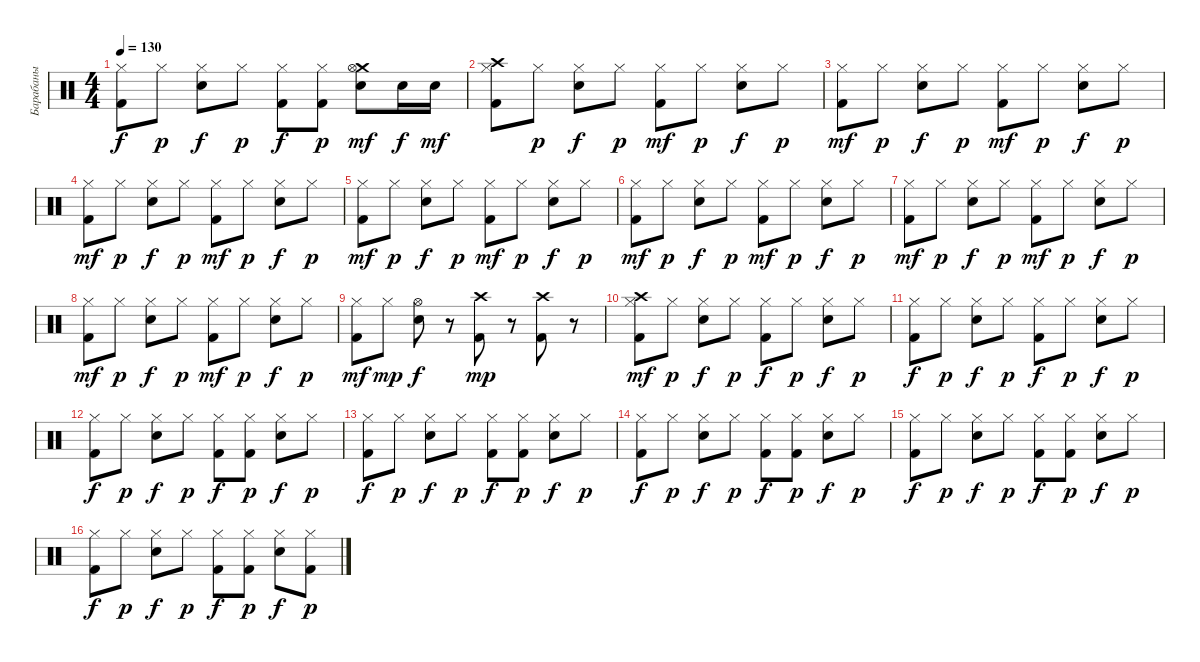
\track ("Барабаны" "Барабаны") {instrument percussion}
\staff {score}
\articulation defaults
\ts (4 4)
\tempo 130
\clef neutral
\ks c
("Hi-Hat (closed)" "Kick (hit) 2").8{dy f} "Hi-Hat (closed)".8{dy p} ("Snare (hit) 2" "Hi-Hat (closed)").8{dy f} "Hi-Hat (closed)".8{dy p} ("Hi-Hat (closed)" "Kick (hit) 2").8{dy f} ("Kick (hit) 2" "Hi-Hat (closed)").8{dy p} ("Crash medium (hit)" "Snare (hit) 2" "Hi-Hat (open)").8{dy mf} "Snare (hit) 2".16{dy f} "Snare (hit) 2".16{dy mf} |
("Crash high (hit)" "Hi-Hat (closed)" "Kick (hit) 2").8 "Hi-Hat (closed)".8{dy p} ("Snare (hit) 2" "Hi-Hat (closed)").8{dy f} "Hi-Hat (closed)".8{dy p} ("Hi-Hat (closed)" "Kick (hit) 2").8{dy mf} "Hi-Hat (closed)".8{dy p} ("Snare (hit) 2" "Hi-Hat (closed)").8{dy f} "Hi-Hat (closed)".8{dy p} |
("Hi-Hat (closed)" "Kick (hit) 2").8{dy mf} "Hi-Hat (closed)".8{dy p} ("Snare (hit) 2" "Hi-Hat (closed)").8{dy f} "Hi-Hat (closed)".8{dy p} ("Hi-Hat (closed)" "Kick (hit) 2").8{dy mf} "Hi-Hat (closed)".8{dy p} ("Snare (hit) 2" "Hi-Hat (closed)").8{dy f} "Hi-Hat (closed)".8{dy p} |
("Hi-Hat (closed)" "Kick (hit) 2").8{dy mf} "Hi-Hat (closed)".8{dy p} ("Snare (hit) 2" "Hi-Hat (closed)").8{dy f} "Hi-Hat (closed)".8{dy p} ("Hi-Hat (closed)" "Kick (hit) 2").8{dy mf} "Hi-Hat (closed)".8{dy p} ("Snare (hit) 2" "Hi-Hat (closed)").8{dy f} "Hi-Hat (closed)".8{dy p} |
("Hi-Hat (closed)" "Kick (hit) 2").8{dy mf} "Hi-Hat (closed)".8{dy p} ("Snare (hit) 2" "Hi-Hat (closed)").8{dy f} "Hi-Hat (closed)".8{dy p} ("Hi-Hat (closed)" "Kick (hit) 2").8{dy mf} "Hi-Hat (closed)".8{dy p} ("Snare (hit) 2" "Hi-Hat (closed)").8{dy f} "Hi-Hat (closed)".8{dy p} |
("Hi-Hat (closed)" "Kick (hit) 2").8{dy mf} "Hi-Hat (closed)".8{dy p} ("Snare (hit) 2" "Hi-Hat (closed)").8{dy f} "Hi-Hat (closed)".8{dy p} ("Hi-Hat (closed)" "Kick (hit) 2").8{dy mf} "Hi-Hat (closed)".8{dy p} ("Snare (hit) 2" "Hi-Hat (closed)").8{dy f} "Hi-Hat (closed)".8{dy p} |
("Hi-Hat (closed)" "Kick (hit) 2").8{dy mf} "Hi-Hat (closed)".8{dy p} ("Snare (hit) 2" "Hi-Hat (closed)").8{dy f} "Hi-Hat (closed)".8{dy p} ("Hi-Hat (closed)" "Kick (hit) 2").8{dy mf} "Hi-Hat (closed)".8{dy p} ("Snare (hit) 2" "Hi-Hat (closed)").8{dy f} "Hi-Hat (closed)".8{dy p} |
("Hi-Hat (closed)" "Kick (hit) 2").8{dy mf} "Hi-Hat (closed)".8{dy p} ("Snare (hit) 2" "Hi-Hat (closed)").8{dy f} "Hi-Hat (closed)".8{dy p} ("Hi-Hat (closed)" "Kick (hit) 2").8{dy mf} "Hi-Hat (closed)".8{dy p} ("Snare (hit) 2" "Hi-Hat (closed)").8{dy f} "Hi-Hat (closed)".8{dy p} |
("Hi-Hat (closed)" "Kick (hit) 2").8{dy mf} "Hi-Hat (closed)".8{dy mp} ("Snare (hit) 2" "Hi-Hat (open)").8{dy f} r.8 ("Crash high (hit)" "Kick (hit) 2").8{dy mp} r.8 ("Crash high (hit)" "Kick (hit) 2").8 r.8 |
("Crash high (hit)" "Hi-Hat (closed)" "Kick (hit) 2").8{dy mf} "Hi-Hat (closed)".8{dy p} ("Snare (hit) 2" "Hi-Hat (closed)").8{dy f} "Hi-Hat (closed)".8{dy p} ("Hi-Hat (closed)" "Kick (hit) 2").8{dy f} "Hi-Hat (closed)".8{dy p} ("Snare (hit) 2" "Hi-Hat (closed)").8{dy f} "Hi-Hat (closed)".8{dy p} |
("Hi-Hat (closed)" "Kick (hit) 2").8{dy f} "Hi-Hat (closed)".8{dy p} ("Snare (hit) 2" "Hi-Hat (closed)").8{dy f} "Hi-Hat (closed)".8{dy p} ("Hi-Hat (closed)" "Kick (hit) 2").8{dy f} "Hi-Hat (closed)".8{dy p} ("Snare (hit) 2" "Hi-Hat (closed)").8{dy f} "Hi-Hat (closed)".8{dy p} |
("Hi-Hat (closed)" "Kick (hit) 2").8{dy f} "Hi-Hat (closed)".8{dy p} ("Snare (hit) 2" "Hi-Hat (closed)").8{dy f} "Hi-Hat (closed)".8{dy p} ("Hi-Hat (closed)" "Kick (hit) 2").8{dy f} ("Kick (hit) 2" "Hi-Hat (closed)").8{dy p} ("Snare (hit) 2" "Hi-Hat (closed)").8{dy f} "Hi-Hat (closed)".8{dy p} |
("Hi-Hat (closed)" "Kick (hit) 2").8{dy f} "Hi-Hat (closed)".8{dy p} ("Snare (hit) 2" "Hi-Hat (closed)").8{dy f} "Hi-Hat (closed)".8{dy p} ("Hi-Hat (closed)" "Kick (hit) 2").8{dy f} ("Kick (hit) 2" "Hi-Hat (closed)").8{dy p} ("Snare (hit) 2" "Hi-Hat (closed)").8{dy f} "Hi-Hat (closed)".8{dy p} |
("Hi-Hat (closed)" "Kick (hit) 2").8{dy f} "Hi-Hat (closed)".8{dy p} ("Snare (hit) 2" "Hi-Hat (closed)").8{dy f} "Hi-Hat (closed)".8{dy p} ("Hi-Hat (closed)" "Kick (hit) 2").8{dy f} ("Kick (hit) 2" "Hi-Hat (closed)").8{dy p} ("Snare (hit) 2" "Hi-Hat (closed)").8{dy f} "Hi-Hat (closed)".8{dy p} |
("Hi-Hat (closed)" "Kick (hit) 2").8{dy f} "Hi-Hat (closed)".8{dy p} ("Snare (hit) 2" "Hi-Hat (closed)").8{dy f} "Hi-Hat (closed)".8{dy p} ("Hi-Hat (closed)" "Kick (hit) 2").8{dy f} ("Kick (hit) 2" "Hi-Hat (closed)").8{dy p} ("Snare (hit) 2" "Hi-Hat (closed)").8{dy f} "Hi-Hat (closed)".8{dy p} |
("Hi-Hat (closed)" "Kick (hit) 2").8{dy f} "Hi-Hat (closed)".8{dy p} ("Snare (hit) 2" "Hi-Hat (closed)").8{dy f} "Hi-Hat (closed)".8{dy p} ("Hi-Hat (closed)" "Kick (hit) 2").8{dy f} ("Kick (hit) 2" "Hi-Hat (closed)").8{dy p} ("Snare (hit) 2" "Hi-Hat (closed)").8{dy f} ("Kick (hit) 2" "Hi-Hat (closed)").8{dy p}
